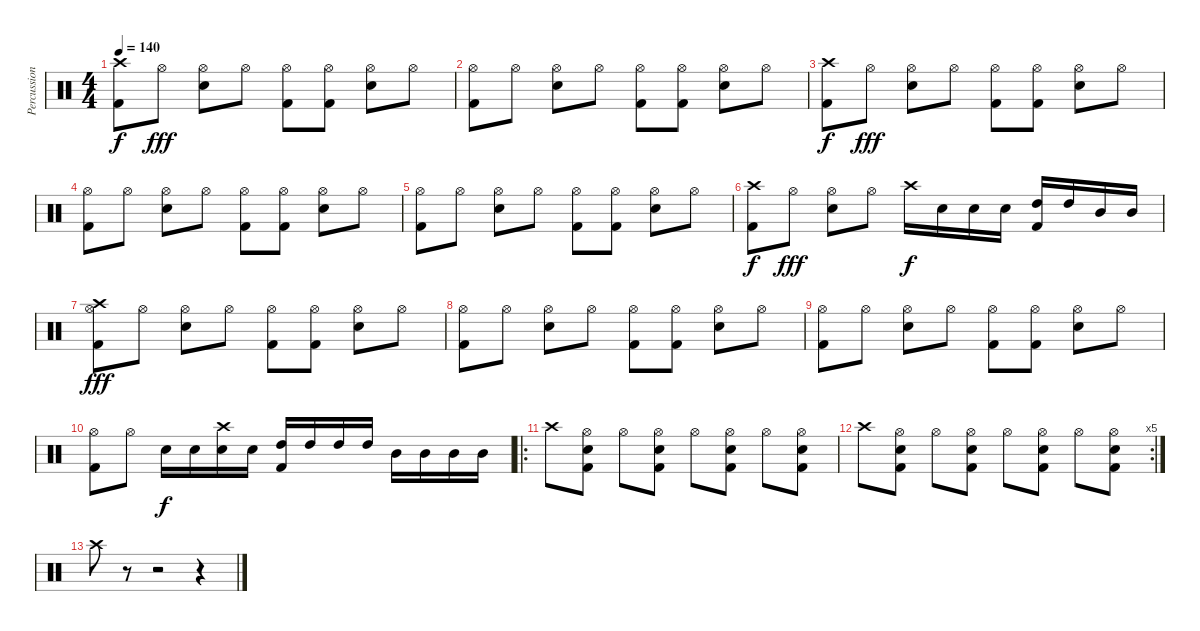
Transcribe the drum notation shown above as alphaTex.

\track ("Percussion" "Percussion") {instrument percussion}
\staff {score}
\articulation defaults
\ts (4 4)
\tempo 140
\clef neutral
\ks c
("Crash high (hit)" "Kick (hit) 2").8{dy f} "Hi-Hat (open)".8{dy fff} ("Hi-Hat (open)" "Snare (hit) 2").8 "Hi-Hat (open)".8 ("Hi-Hat (open)" "Kick (hit) 2").8 ("Hi-Hat (open)" "Kick (hit) 2").8 ("Hi-Hat (open)" "Snare (hit) 2").8 "Hi-Hat (open)".8 |
("Hi-Hat (open)" "Kick (hit) 2").8 "Hi-Hat (open)".8 ("Hi-Hat (open)" "Snare (hit) 2").8 "Hi-Hat (open)".8 ("Hi-Hat (open)" "Kick (hit) 2").8 ("Hi-Hat (open)" "Kick (hit) 2").8 ("Hi-Hat (open)" "Snare (hit) 2").8 "Hi-Hat (open)".8 |
("Crash high (hit)" "Kick (hit) 2").8{dy f} "Hi-Hat (open)".8{dy fff} ("Hi-Hat (open)" "Snare (hit) 2").8 "Hi-Hat (open)".8 ("Hi-Hat (open)" "Kick (hit) 2").8 ("Hi-Hat (open)" "Kick (hit) 2").8 ("Hi-Hat (open)" "Snare (hit) 2").8 "Hi-Hat (open)".8 |
("Hi-Hat (open)" "Kick (hit) 2").8 "Hi-Hat (open)".8 ("Hi-Hat (open)" "Snare (hit) 2").8 "Hi-Hat (open)".8 ("Hi-Hat (open)" "Kick (hit) 2").8 ("Hi-Hat (open)" "Kick (hit) 2").8 ("Hi-Hat (open)" "Snare (hit) 2").8 "Hi-Hat (open)".8 |
("Hi-Hat (open)" "Kick (hit) 2").8 "Hi-Hat (open)".8 ("Hi-Hat (open)" "Snare (hit) 2").8 "Hi-Hat (open)".8 ("Hi-Hat (open)" "Kick (hit) 2").8 ("Hi-Hat (open)" "Kick (hit) 2").8 ("Hi-Hat (open)" "Snare (hit) 2").8 "Hi-Hat (open)".8 |
("Crash high (hit)" "Kick (hit) 2").8{dy f} "Hi-Hat (open)".8{dy fff} ("Hi-Hat (open)" "Snare (hit) 2").8 "Hi-Hat (open)".8 "Crash high (hit)".16{dy f} "Snare (hit) 2".16 "Snare (hit) 2".16 "Snare (hit) 2".16 ("High Tom (hit)" "Kick (hit) 2").16 "High Tom (hit)".16 "Mid Tom (hit)".16 "Mid Tom (hit)".16 |
("Crash high (hit)" "Hi-Hat (open)" "Kick (hit) 2").8{dy fff} "Hi-Hat (open)".8 ("Hi-Hat (open)" "Snare (hit) 2").8 "Hi-Hat (open)".8 ("Hi-Hat (open)" "Kick (hit) 2").8 ("Hi-Hat (open)" "Kick (hit) 2").8 ("Hi-Hat (open)" "Snare (hit) 2").8 "Hi-Hat (open)".8 |
("Hi-Hat (open)" "Kick (hit) 2").8 "Hi-Hat (open)".8 ("Hi-Hat (open)" "Snare (hit) 2").8 "Hi-Hat (open)".8 ("Hi-Hat (open)" "Kick (hit) 2").8 ("Hi-Hat (open)" "Kick (hit) 2").8 ("Hi-Hat (open)" "Snare (hit) 2").8 "Hi-Hat (open)".8 |
("Hi-Hat (open)" "Kick (hit) 2").8 "Hi-Hat (open)".8 ("Hi-Hat (open)" "Snare (hit) 2").8 "Hi-Hat (open)".8 ("Hi-Hat (open)" "Kick (hit) 2").8 ("Hi-Hat (open)" "Kick (hit) 2").8 ("Hi-Hat (open)" "Snare (hit) 2").8 "Hi-Hat (open)".8 |
("Hi-Hat (open)" "Kick (hit) 2").8 "Hi-Hat (open)".8 "Snare (hit) 2".16{dy f} "Snare (hit) 2".16 ("Crash high (hit)" "Snare (hit) 2").16 "Snare (hit) 2".16 ("High Tom (hit)" "Kick (hit) 2").16 "High Tom (hit)".16 "High Tom (hit)".16 "High Tom (hit)".16 "Mid Tom (hit)".16 "Mid Tom (hit)".16 "Mid Tom (hit)".16 "Mid Tom (hit)".16 |
\ro "Crash high (hit)".8
("Hi-Hat (open)" "Snare (hit) 2" "Kick (hit) 2").8 "Hi-Hat (open)".8 ("Hi-Hat (open)" "Snare (hit) 2" "Kick (hit) 2").8 "Hi-Hat (open)".8 ("Hi-Hat (open)" "Snare (hit) 2" "Kick (hit) 2").8 "Hi-Hat (open)".8 ("Hi-Hat (open)" "Snare (hit) 2" "Kick (hit) 2").8 |
\rc 5 "Crash high (hit)".8
("Hi-Hat (open)" "Snare (hit) 2" "Kick (hit) 2").8 "Hi-Hat (open)".8 ("Hi-Hat (open)" "Snare (hit) 2" "Kick (hit) 2").8 "Hi-Hat (open)".8 ("Hi-Hat (open)" "Snare (hit) 2" "Kick (hit) 2").8 "Hi-Hat (open)".8 ("Hi-Hat (open)" "Snare (hit) 2" "Kick (hit) 2").8 |
"Crash high (hit)".8 r.8 r.2 r.4
